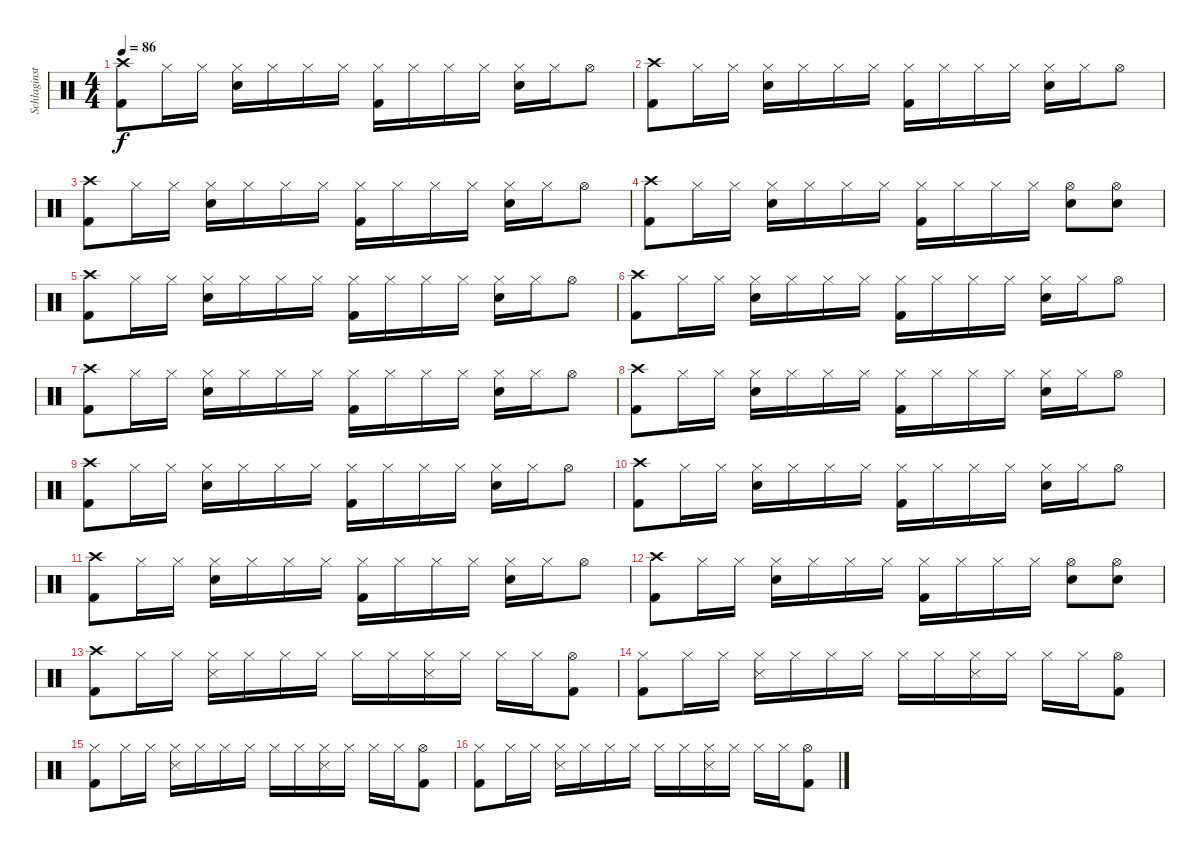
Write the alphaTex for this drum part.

\track ("Schlaginstrumente - Auswahl" "Schlaginst") {instrument percussion}
\staff {score}
\articulation defaults
\ts (4 4)
\tempo 86
\clef neutral
\ks c
("Crash high (hit)" "Kick (hit) 2").8{dy f} "Hi-Hat (closed)".16 "Hi-Hat (closed)".16 ("Hi-Hat (closed)" "Snare (hit) 2").16 "Hi-Hat (closed)".16 "Hi-Hat (closed)".16 "Hi-Hat (closed)".16 ("Hi-Hat (closed)" "Kick (hit) 2").16 "Hi-Hat (closed)".16 "Hi-Hat (closed)".16 "Hi-Hat (closed)".16 ("Hi-Hat (closed)" "Snare (hit) 2").16 "Hi-Hat (closed)".16 "Hi-Hat (open)".8 |
("Crash high (hit)" "Kick (hit) 2").8 "Hi-Hat (closed)".16 "Hi-Hat (closed)".16 ("Hi-Hat (closed)" "Snare (hit) 2").16 "Hi-Hat (closed)".16 "Hi-Hat (closed)".16 "Hi-Hat (closed)".16 ("Hi-Hat (closed)" "Kick (hit) 2").16 "Hi-Hat (closed)".16 "Hi-Hat (closed)".16 "Hi-Hat (closed)".16 ("Hi-Hat (closed)" "Snare (hit) 2").16 "Hi-Hat (closed)".16 "Hi-Hat (open)".8 |
("Crash high (hit)" "Kick (hit) 2").8 "Hi-Hat (closed)".16 "Hi-Hat (closed)".16 ("Hi-Hat (closed)" "Snare (hit) 2").16 "Hi-Hat (closed)".16 "Hi-Hat (closed)".16 "Hi-Hat (closed)".16 ("Hi-Hat (closed)" "Kick (hit) 2").16 "Hi-Hat (closed)".16 "Hi-Hat (closed)".16 "Hi-Hat (closed)".16 ("Hi-Hat (closed)" "Snare (hit) 2").16 "Hi-Hat (closed)".16 "Hi-Hat (open)".8 |
("Crash high (hit)" "Kick (hit) 2").8 "Hi-Hat (closed)".16 "Hi-Hat (closed)".16 ("Hi-Hat (closed)" "Snare (hit) 2").16 "Hi-Hat (closed)".16 "Hi-Hat (closed)".16 "Hi-Hat (closed)".16 ("Hi-Hat (closed)" "Kick (hit) 2").16 "Hi-Hat (closed)".16 "Hi-Hat (closed)".16 "Hi-Hat (closed)".16 ("Hi-Hat (open)" "Snare (hit) 2").8 ("Hi-Hat (open)" "Snare (hit) 2").8 |
("Crash high (hit)" "Kick (hit) 2").8 "Hi-Hat (closed)".16 "Hi-Hat (closed)".16 ("Hi-Hat (closed)" "Snare (hit) 2").16 "Hi-Hat (closed)".16 "Hi-Hat (closed)".16 "Hi-Hat (closed)".16 ("Hi-Hat (closed)" "Kick (hit) 2").16 "Hi-Hat (closed)".16 "Hi-Hat (closed)".16 "Hi-Hat (closed)".16 ("Hi-Hat (closed)" "Snare (hit) 2").16 "Hi-Hat (closed)".16 "Hi-Hat (open)".8 |
("Crash high (hit)" "Kick (hit) 2").8 "Hi-Hat (closed)".16 "Hi-Hat (closed)".16 ("Hi-Hat (closed)" "Snare (hit) 2").16 "Hi-Hat (closed)".16 "Hi-Hat (closed)".16 "Hi-Hat (closed)".16 ("Hi-Hat (closed)" "Kick (hit) 2").16 "Hi-Hat (closed)".16 "Hi-Hat (closed)".16 "Hi-Hat (closed)".16 ("Hi-Hat (closed)" "Snare (hit) 2").16 "Hi-Hat (closed)".16 "Hi-Hat (open)".8 |
("Crash high (hit)" "Kick (hit) 2").8 "Hi-Hat (closed)".16 "Hi-Hat (closed)".16 ("Hi-Hat (closed)" "Snare (hit) 2").16 "Hi-Hat (closed)".16 "Hi-Hat (closed)".16 "Hi-Hat (closed)".16 ("Hi-Hat (closed)" "Kick (hit) 2").16 "Hi-Hat (closed)".16 "Hi-Hat (closed)".16 "Hi-Hat (closed)".16 ("Hi-Hat (closed)" "Snare (hit) 2").16 "Hi-Hat (closed)".16 "Hi-Hat (open)".8 |
("Crash high (hit)" "Kick (hit) 2").8 "Hi-Hat (closed)".16 "Hi-Hat (closed)".16 ("Hi-Hat (closed)" "Snare (hit) 2").16 "Hi-Hat (closed)".16 "Hi-Hat (closed)".16 "Hi-Hat (closed)".16 ("Hi-Hat (closed)" "Kick (hit) 2").16 "Hi-Hat (closed)".16 "Hi-Hat (closed)".16 "Hi-Hat (closed)".16 ("Hi-Hat (closed)" "Snare (hit) 2").16 "Hi-Hat (closed)".16 "Hi-Hat (open)".8 |
("Crash high (hit)" "Kick (hit) 2").8 "Hi-Hat (closed)".16 "Hi-Hat (closed)".16 ("Hi-Hat (closed)" "Snare (hit) 2").16 "Hi-Hat (closed)".16 "Hi-Hat (closed)".16 "Hi-Hat (closed)".16 ("Hi-Hat (closed)" "Kick (hit) 2").16 "Hi-Hat (closed)".16 "Hi-Hat (closed)".16 "Hi-Hat (closed)".16 ("Hi-Hat (closed)" "Snare (hit) 2").16 "Hi-Hat (closed)".16 "Hi-Hat (open)".8 |
("Crash high (hit)" "Kick (hit) 2").8 "Hi-Hat (closed)".16 "Hi-Hat (closed)".16 ("Hi-Hat (closed)" "Snare (hit) 2").16 "Hi-Hat (closed)".16 "Hi-Hat (closed)".16 "Hi-Hat (closed)".16 ("Hi-Hat (closed)" "Kick (hit) 2").16 "Hi-Hat (closed)".16 "Hi-Hat (closed)".16 "Hi-Hat (closed)".16 ("Hi-Hat (closed)" "Snare (hit) 2").16 "Hi-Hat (closed)".16 "Hi-Hat (open)".8 |
("Crash high (hit)" "Kick (hit) 2").8 "Hi-Hat (closed)".16 "Hi-Hat (closed)".16 ("Hi-Hat (closed)" "Snare (hit) 2").16 "Hi-Hat (closed)".16 "Hi-Hat (closed)".16 "Hi-Hat (closed)".16 ("Hi-Hat (closed)" "Kick (hit) 2").16 "Hi-Hat (closed)".16 "Hi-Hat (closed)".16 "Hi-Hat (closed)".16 ("Hi-Hat (closed)" "Snare (hit) 2").16 "Hi-Hat (closed)".16 "Hi-Hat (open)".8 |
("Crash high (hit)" "Kick (hit) 2").8 "Hi-Hat (closed)".16 "Hi-Hat (closed)".16 ("Hi-Hat (closed)" "Snare (hit) 2").16 "Hi-Hat (closed)".16 "Hi-Hat (closed)".16 "Hi-Hat (closed)".16 ("Hi-Hat (closed)" "Kick (hit) 2").16 "Hi-Hat (closed)".16 "Hi-Hat (closed)".16 "Hi-Hat (closed)".16 ("Hi-Hat (open)" "Snare (hit) 2").8 ("Hi-Hat (open)" "Snare (hit) 2").8 |
("Crash high (hit)" "Kick (hit) 2").8 "Hi-Hat (closed)".16 "Hi-Hat (closed)".16 ("Hi-Hat (closed)" "Snare (side stick) 3").16 "Hi-Hat (closed)".16 "Hi-Hat (closed)".16 "Hi-Hat (closed)".16 "Hi-Hat (closed)".16 "Hi-Hat (closed)".16 ("Hi-Hat (closed)" "Snare (side stick) 3").16 "Hi-Hat (closed)".16 "Hi-Hat (closed)".16 "Hi-Hat (closed)".16 ("Hi-Hat (open)" "Kick (hit) 2").8 |
("Hi-Hat (closed)" "Kick (hit) 2").8 "Hi-Hat (closed)".16 "Hi-Hat (closed)".16 ("Hi-Hat (closed)" "Snare (side stick) 3").16 "Hi-Hat (closed)".16 "Hi-Hat (closed)".16 "Hi-Hat (closed)".16 "Hi-Hat (closed)".16 "Hi-Hat (closed)".16 ("Hi-Hat (closed)" "Snare (side stick) 3").16 "Hi-Hat (closed)".16 "Hi-Hat (closed)".16 "Hi-Hat (closed)".16 ("Hi-Hat (open)" "Kick (hit) 2").8 |
("Hi-Hat (closed)" "Kick (hit) 2").8 "Hi-Hat (closed)".16 "Hi-Hat (closed)".16 ("Hi-Hat (closed)" "Snare (side stick) 3").16 "Hi-Hat (closed)".16 "Hi-Hat (closed)".16 "Hi-Hat (closed)".16 "Hi-Hat (closed)".16 "Hi-Hat (closed)".16 ("Hi-Hat (closed)" "Snare (side stick) 3").16 "Hi-Hat (closed)".16 "Hi-Hat (closed)".16 "Hi-Hat (closed)".16 ("Hi-Hat (open)" "Kick (hit) 2").8 |
("Hi-Hat (closed)" "Kick (hit) 2").8 "Hi-Hat (closed)".16 "Hi-Hat (closed)".16 ("Hi-Hat (closed)" "Snare (side stick) 3").16 "Hi-Hat (closed)".16 "Hi-Hat (closed)".16 "Hi-Hat (closed)".16 "Hi-Hat (closed)".16 "Hi-Hat (closed)".16 ("Hi-Hat (closed)" "Snare (side stick) 3").16 "Hi-Hat (closed)".16 "Hi-Hat (closed)".16 "Hi-Hat (closed)".16 ("Hi-Hat (open)" "Kick (hit) 2").8
